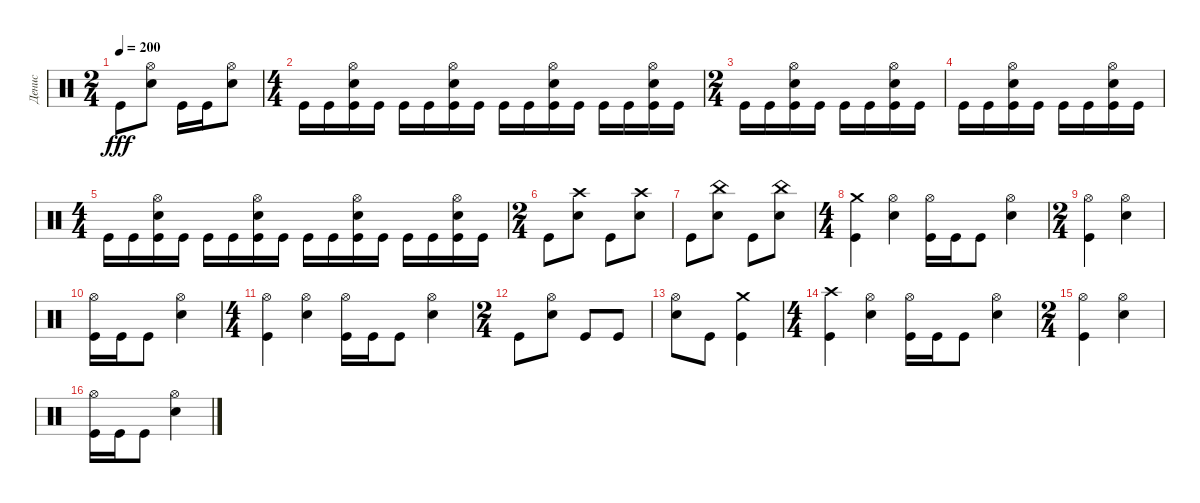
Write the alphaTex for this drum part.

\track ("Денис" "Денис") {instrument percussion}
\staff {score}
\articulation defaults
\ts (2 4)
\tempo 200
\clef neutral
\ks c "Kick (hit)".8{dy fff}
("Electric Snare (hit)" "Hi-Hat (open)").8 "Kick (hit)".16 "Kick (hit)".16 ("Electric Snare (hit)" "Hi-Hat (open)").8 |
\ts (4 4)
"Kick (hit)".16 "Kick (hit)".16 ("Kick (hit)" "Hi-Hat (open)" "Electric Snare (hit)").16 "Kick (hit)".16 "Kick (hit)".16 "Kick (hit)".16 ("Kick (hit)" "Hi-Hat (open)" "Electric Snare (hit)").16 "Kick (hit)".16 "Kick (hit)".16 "Kick (hit)".16 ("Kick (hit)" "Hi-Hat (open)" "Electric Snare (hit)").16 "Kick (hit)".16 "Kick (hit)".16 "Kick (hit)".16 ("Kick (hit)" "Hi-Hat (open)" "Electric Snare (hit)").16 "Kick (hit)".16 |
\ts (2 4)
"Kick (hit)".16 "Kick (hit)".16 ("Kick (hit)" "Hi-Hat (open)" "Electric Snare (hit)").16 "Kick (hit)".16 "Kick (hit)".16 "Kick (hit)".16 ("Kick (hit)" "Hi-Hat (open)" "Electric Snare (hit)").16 "Kick (hit)".16 |
"Kick (hit)".16 "Kick (hit)".16 ("Kick (hit)" "Hi-Hat (open)" "Electric Snare (hit)").16 "Kick (hit)".16 "Kick (hit)".16 "Kick (hit)".16 ("Kick (hit)" "Hi-Hat (open)" "Electric Snare (hit)").16 "Kick (hit)".16 |
\ts (4 4)
"Kick (hit)".16 "Kick (hit)".16 ("Kick (hit)" "Hi-Hat (open)" "Electric Snare (hit)").16 "Kick (hit)".16 "Kick (hit)".16 "Kick (hit)".16 ("Kick (hit)" "Hi-Hat (open)" "Electric Snare (hit)").16 "Kick (hit)".16 "Kick (hit)".16 "Kick (hit)".16 ("Kick (hit)" "Hi-Hat (open)" "Electric Snare (hit)").16 "Kick (hit)".16 "Kick (hit)".16 "Kick (hit)".16 ("Kick (hit)" "Hi-Hat (open)" "Electric Snare (hit)").16 "Kick (hit)".16 |
\ts (2 4)
"Kick (hit)".8 ("Electric Snare (hit)" "Crash high (hit)").8 "Kick (hit)".8 ("Electric Snare (hit)" "Crash high (hit)").8 |
"Kick (hit)".8 ("Electric Snare (hit)" "China (hit)").8 "Kick (hit)".8 ("Electric Snare (hit)" "China (hit)").8 |
\ts (4 4)
("Crash medium (hit)" "Kick (hit)").4 ("Electric Snare (hit)" "Hi-Hat (open)").4 ("Hi-Hat (open)" "Kick (hit)").16 "Kick (hit)".16 "Kick (hit)".8 ("Electric Snare (hit)" "Hi-Hat (open)").4 |
\ts (2 4)
("Kick (hit)" "Hi-Hat (open)").4 ("Electric Snare (hit)" "Hi-Hat (open)").4 |
("Hi-Hat (open)" "Kick (hit)").16 "Kick (hit)".16 "Kick (hit)".8 ("Electric Snare (hit)" "Hi-Hat (open)").4 |
\ts (4 4)
("Hi-Hat (open)" "Kick (hit)").4 ("Electric Snare (hit)" "Hi-Hat (open)").4 ("Hi-Hat (open)" "Kick (hit)").16 "Kick (hit)".16 "Kick (hit)".8 ("Electric Snare (hit)" "Hi-Hat (open)").4 |
\ts (2 4)
"Kick (hit)".8 ("Electric Snare (hit)" "Hi-Hat (open)").8 "Kick (hit)".8 "Kick (hit)".8 |
("Electric Snare (hit)" "Hi-Hat (open)").8 "Kick (hit)".8 ("Kick (hit)" "Crash medium (hit)").4 |
\ts (4 4)
("Crash high (hit)" "Kick (hit)").4 ("Electric Snare (hit)" "Hi-Hat (open)").4 ("Hi-Hat (open)" "Kick (hit)").16 "Kick (hit)".16 "Kick (hit)".8 ("Electric Snare (hit)" "Hi-Hat (open)").4 |
\ts (2 4)
("Kick (hit)" "Hi-Hat (open)").4 ("Electric Snare (hit)" "Hi-Hat (open)").4 |
("Hi-Hat (open)" "Kick (hit)").16 "Kick (hit)".16 "Kick (hit)".8 ("Electric Snare (hit)" "Hi-Hat (open)").4
